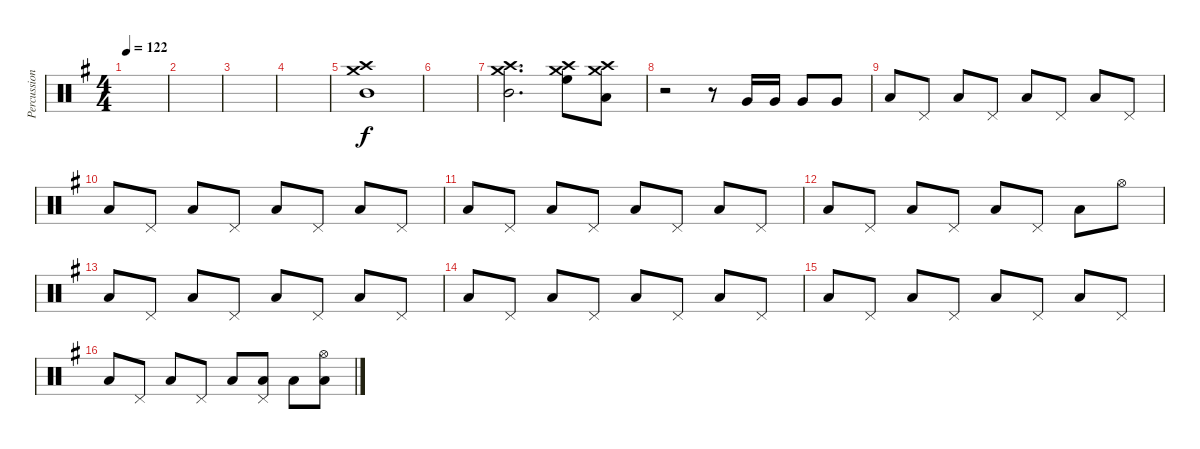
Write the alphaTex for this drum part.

\track ("Percussion" "Percussion") {instrument percussion}
\staff {score}
\articulation defaults
\ts (4 4)
\tempo 122
\clef neutral
\ks g
|
|
|
|
("Crash high (hit)" "Crash medium (hit)" "Mid Tom (hit)").1 |
|
("Crash high (hit)" "Crash medium (hit)" "Mid Tom (hit)").2{d} ("Crash high (hit)" "Crash medium (hit)" "High Floor Tom (hit)").8 ("Crash high (hit)" "Crash medium (hit)" "Low Tom (hit)").8 |
r.2 r.8 "Very Low Tom (hit)".16 "Very Low Tom (hit)".16 "Very Low Tom (hit)".8 "Very Low Tom (hit)".8 |
"Low Tom (hit)".8 "Pedal Hi-Hat (hit)".8 "Low Tom (hit)".8 "Pedal Hi-Hat (hit)".8 "Low Tom (hit)".8 "Pedal Hi-Hat (hit)".8 "Low Tom (hit)".8 "Pedal Hi-Hat (hit)".8 |
"Low Tom (hit)".8 "Pedal Hi-Hat (hit)".8 "Low Tom (hit)".8 "Pedal Hi-Hat (hit)".8 "Low Tom (hit)".8 "Pedal Hi-Hat (hit)".8 "Low Tom (hit)".8 "Pedal Hi-Hat (hit)".8 |
"Low Tom (hit)".8 "Pedal Hi-Hat (hit)".8 "Low Tom (hit)".8 "Pedal Hi-Hat (hit)".8 "Low Tom (hit)".8 "Pedal Hi-Hat (hit)".8 "Low Tom (hit)".8 "Pedal Hi-Hat (hit)".8 |
"Low Tom (hit)".8 "Pedal Hi-Hat (hit)".8 "Low Tom (hit)".8 "Pedal Hi-Hat (hit)".8 "Low Tom (hit)".8 "Pedal Hi-Hat (hit)".8 "Low Tom (hit)".8 "Hi-Hat (open)".8 |
"Low Tom (hit)".8 "Pedal Hi-Hat (hit)".8 "Low Tom (hit)".8 "Pedal Hi-Hat (hit)".8 "Low Tom (hit)".8 "Pedal Hi-Hat (hit)".8 "Low Tom (hit)".8 "Pedal Hi-Hat (hit)".8 |
"Low Tom (hit)".8 "Pedal Hi-Hat (hit)".8 "Low Tom (hit)".8 "Pedal Hi-Hat (hit)".8 "Low Tom (hit)".8 "Pedal Hi-Hat (hit)".8 "Low Tom (hit)".8 "Pedal Hi-Hat (hit)".8 |
"Low Tom (hit)".8 "Pedal Hi-Hat (hit)".8 "Low Tom (hit)".8 "Pedal Hi-Hat (hit)".8 "Low Tom (hit)".8 "Pedal Hi-Hat (hit)".8 "Low Tom (hit)".8 "Pedal Hi-Hat (hit)".8 |
"Low Tom (hit)".8 "Pedal Hi-Hat (hit)".8 "Low Tom (hit)".8 "Pedal Hi-Hat (hit)".8 "Low Tom (hit)".8 ("Pedal Hi-Hat (hit)" "Low Tom (hit)").8 "Low Tom (hit)".8 ("Hi-Hat (open)" "Low Tom (hit)").8
